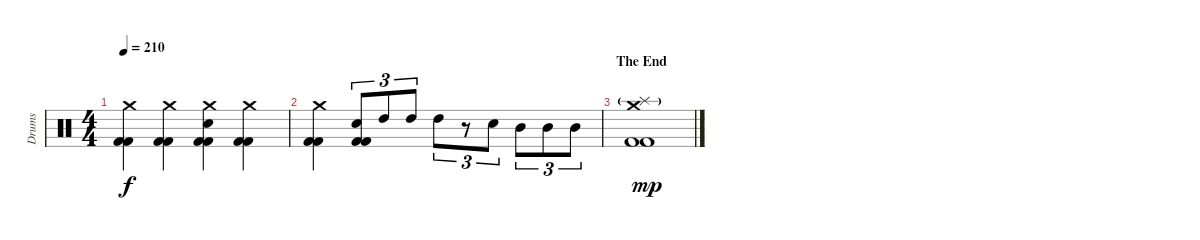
\track ("Drums" "Drums") {instrument percussion}
\staff {score}
\articulation defaults
\ts (4 4)
\tempo 210
\clef neutral
\ks c
("Crash medium (hit)" "Kick (hit) 2" "Kick (hit) 2").4{dy f} ("Crash medium (hit)" "Kick (hit) 2" "Kick (hit) 2").4 ("Crash medium (hit)" "Snare (hit) 2" "Kick (hit) 2" "Kick (hit) 2").4 ("Crash medium (hit)" "Kick (hit) 2" "Kick (hit) 2").4 |
("Crash medium (hit)" "Kick (hit) 2" "Kick (hit) 2").4 ("Snare (hit) 2" "Kick (hit) 2" "Kick (hit) 2").8{tu (3 2)} "High Tom (hit)".8{tu (3 2)} "High Tom (hit)".8{tu (3 2)} "High Tom (hit)".8{tu (3 2)} r.8{tu (3 2)} "Snare (hit) 2".8{tu (3 2)} "Mid Tom (hit)".8{tu (3 2)} "Mid Tom (hit)".8{tu (3 2)} "Mid Tom (hit)".8{tu (3 2)} |
\section ("" "The End")
("Crash medium (hit)" "Splash (hit)"{g} "Kick (hit) 2" "Kick (hit) 2").1{dy mp}
